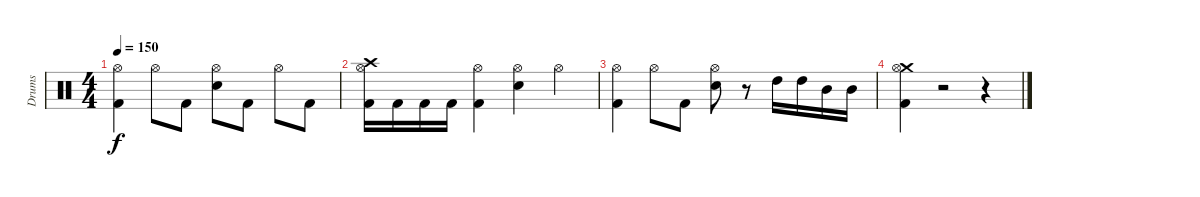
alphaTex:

\track ("Drums" "Drums") {instrument percussion}
\staff {score}
\articulation defaults
\ts (4 4)
\tempo 150
\clef neutral
\ks c
("Hi-Hat (open)" "Kick (hit) 2").4{dy f} "Hi-Hat (open)".8 "Kick (hit) 2".8 ("Hi-Hat (open)" "Electric Snare (hit)").8 "Kick (hit) 2".8 "Hi-Hat (open)".8 "Kick (hit) 2".8 |
("Crash high (hit)" "Hi-Hat (open)" "Kick (hit) 2").16 "Kick (hit) 2".16 "Kick (hit) 2".16 "Kick (hit) 2".16 ("Hi-Hat (open)" "Kick (hit) 2").4 ("Hi-Hat (open)" "Electric Snare (hit)").4 "Hi-Hat (open)".4 |
("Hi-Hat (open)" "Kick (hit) 2").4 "Hi-Hat (open)".8 "Kick (hit) 2".8 ("Hi-Hat (open)" "Electric Snare (hit)").8 r.8 "High Tom (hit)".16 "High Tom (hit)".16 "Mid Tom (hit)".16 "Mid Tom (hit)".16 |
("Crash medium (hit)" "Hi-Hat (open)" "Kick (hit) 2").4 r.2 r.4
